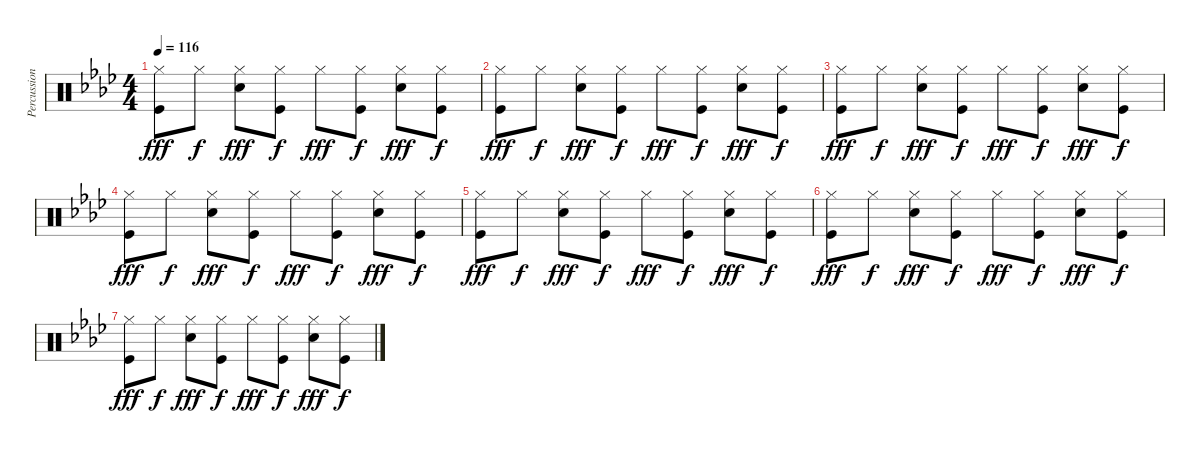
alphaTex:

\track ("Percussion" "Percussion") {instrument percussion}
\staff {score}
\articulation defaults
\ts (4 4)
\tempo 116
\clef neutral
\ks fminor
("Hi-Hat (closed)" "Kick (hit)").8{dy fff} "Hi-Hat (closed)".8{dy f} ("Hi-Hat (closed)" "Electric Snare (hit)").8{dy fff} ("Hi-Hat (closed)" "Kick (hit)").8{dy f} "Hi-Hat (closed)".8{dy fff} ("Hi-Hat (closed)" "Kick (hit)").8{dy f} ("Hi-Hat (closed)" "Electric Snare (hit)").8{dy fff} ("Hi-Hat (closed)" "Kick (hit)").8{dy f} |
("Hi-Hat (closed)" "Kick (hit)").8{dy fff} "Hi-Hat (closed)".8{dy f} ("Hi-Hat (closed)" "Electric Snare (hit)").8{dy fff} ("Hi-Hat (closed)" "Kick (hit)").8{dy f} "Hi-Hat (closed)".8{dy fff} ("Hi-Hat (closed)" "Kick (hit)").8{dy f} ("Hi-Hat (closed)" "Electric Snare (hit)").8{dy fff} ("Hi-Hat (closed)" "Kick (hit)").8{dy f} |
("Hi-Hat (closed)" "Kick (hit)").8{dy fff} "Hi-Hat (closed)".8{dy f} ("Hi-Hat (closed)" "Electric Snare (hit)").8{dy fff} ("Hi-Hat (closed)" "Kick (hit)").8{dy f} "Hi-Hat (closed)".8{dy fff} ("Hi-Hat (closed)" "Kick (hit)").8{dy f} ("Hi-Hat (closed)" "Electric Snare (hit)").8{dy fff} ("Hi-Hat (closed)" "Kick (hit)").8{dy f} |
("Hi-Hat (closed)" "Kick (hit)").8{dy fff} "Hi-Hat (closed)".8{dy f} ("Hi-Hat (closed)" "Electric Snare (hit)").8{dy fff} ("Hi-Hat (closed)" "Kick (hit)").8{dy f} "Hi-Hat (closed)".8{dy fff} ("Hi-Hat (closed)" "Kick (hit)").8{dy f} ("Hi-Hat (closed)" "Electric Snare (hit)").8{dy fff} ("Hi-Hat (closed)" "Kick (hit)").8{dy f} |
("Hi-Hat (closed)" "Kick (hit)").8{dy fff} "Hi-Hat (closed)".8{dy f} ("Hi-Hat (closed)" "Electric Snare (hit)").8{dy fff} ("Hi-Hat (closed)" "Kick (hit)").8{dy f} "Hi-Hat (closed)".8{dy fff} ("Hi-Hat (closed)" "Kick (hit)").8{dy f} ("Hi-Hat (closed)" "Electric Snare (hit)").8{dy fff} ("Hi-Hat (closed)" "Kick (hit)").8{dy f} |
("Hi-Hat (closed)" "Kick (hit)").8{dy fff} "Hi-Hat (closed)".8{dy f} ("Hi-Hat (closed)" "Electric Snare (hit)").8{dy fff} ("Hi-Hat (closed)" "Kick (hit)").8{dy f} "Hi-Hat (closed)".8{dy fff} ("Hi-Hat (closed)" "Kick (hit)").8{dy f} ("Hi-Hat (closed)" "Electric Snare (hit)").8{dy fff} ("Hi-Hat (closed)" "Kick (hit)").8{dy f} |
("Hi-Hat (closed)" "Kick (hit)").8{dy fff} "Hi-Hat (closed)".8{dy f} ("Hi-Hat (closed)" "Electric Snare (hit)").8{dy fff} ("Hi-Hat (closed)" "Kick (hit)").8{dy f} "Hi-Hat (closed)".8{dy fff} ("Hi-Hat (closed)" "Kick (hit)").8{dy f} ("Hi-Hat (closed)" "Electric Snare (hit)").8{dy fff} ("Hi-Hat (closed)" "Kick (hit)").8{dy f}
